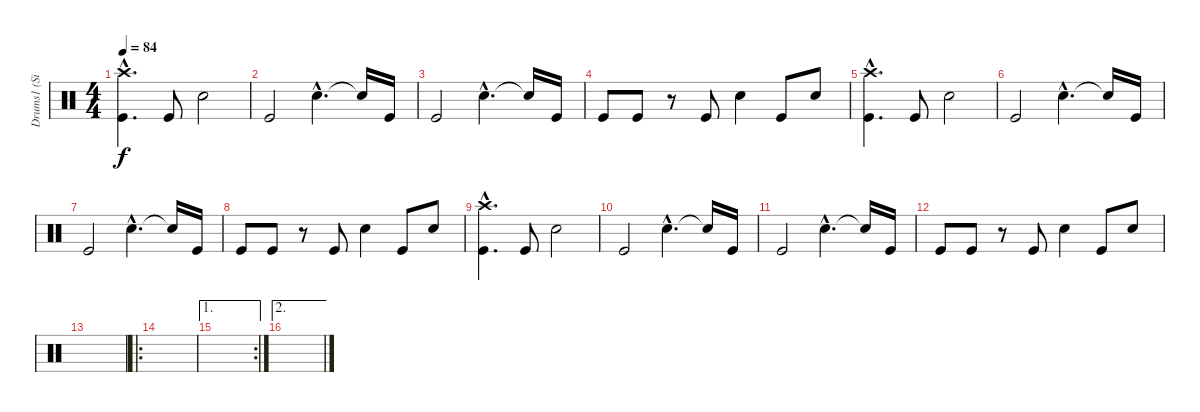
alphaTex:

\track ("Drums1 (Silas)" "Drums1 (Si") {instrument percussion}
\staff {score}
\articulation defaults
\ts (4 4)
\tempo 84
\clef neutral
\ks c
("Kick (hit)"{hac} "Crash high (hit)"{hac}).4{d dy f} "Kick (hit)".8 "Snare (hit) 2".2 |
"Kick (hit)".2 "Snare (hit) 2"{hac}.4{d} "Snare (hit) 2"{t}.16 "Kick (hit)".16 |
"Kick (hit)".2 "Snare (hit) 2"{hac}.4{d} "Snare (hit) 2"{t}.16 "Kick (hit)".16 |
"Kick (hit)".8 "Kick (hit)".8 r.8 "Kick (hit)".8 "Snare (hit) 2".4 "Kick (hit)".8 "Snare (hit) 2".8 |
("Kick (hit)"{hac} "Crash high (hit)"{hac}).4{d} "Kick (hit)".8 "Snare (hit) 2".2 |
"Kick (hit)".2 "Snare (hit) 2"{hac}.4{d} "Snare (hit) 2"{t}.16 "Kick (hit)".16 |
"Kick (hit)".2 "Snare (hit) 2"{hac}.4{d} "Snare (hit) 2"{t}.16 "Kick (hit)".16 |
"Kick (hit)".8 "Kick (hit)".8 r.8 "Kick (hit)".8 "Snare (hit) 2".4 "Kick (hit)".8 "Snare (hit) 2".8 |
("Kick (hit)"{hac} "Crash high (hit)"{hac}).4{d} "Kick (hit)".8 "Snare (hit) 2".2 |
"Kick (hit)".2 "Snare (hit) 2"{hac}.4{d} "Snare (hit) 2"{t}.16 "Kick (hit)".16 |
"Kick (hit)".2 "Snare (hit) 2"{hac}.4{d} "Snare (hit) 2"{t}.16 "Kick (hit)".16 |
"Kick (hit)".8 "Kick (hit)".8 r.8 "Kick (hit)".8 "Snare (hit) 2".4 "Kick (hit)".8 "Snare (hit) 2".8 |
|
\ro
|
\ae 1
\rc 2
|
\ae 2
